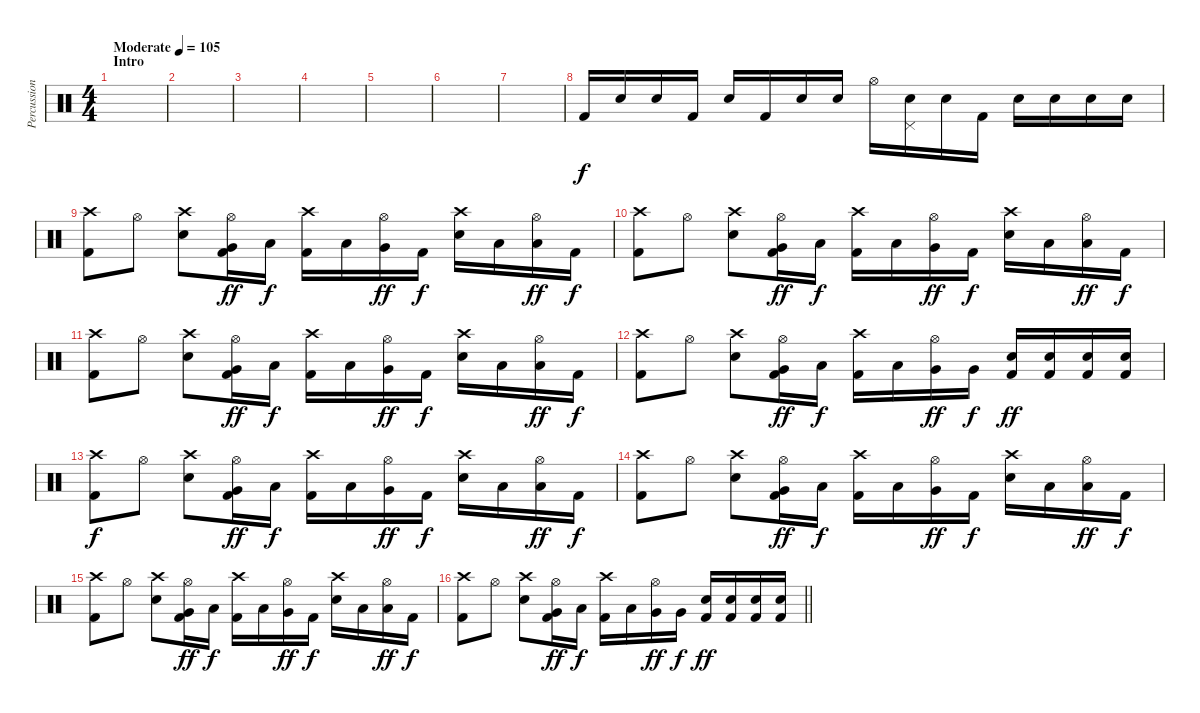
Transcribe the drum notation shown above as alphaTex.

\track ("Percussion" "Percussion") {instrument percussion}
\staff {score}
\articulation defaults
\ts (4 4)
\section ("" "Intro")
\tempo (105 "Moderate")
\clef neutral
\ks c
|
|
|
|
|
|
|
"Kick (hit) 2".16 "Electric Snare (hit)".16 "Electric Snare (hit)".16 "Kick (hit) 2".16 "Electric Snare (hit)".16 "Kick (hit) 2".16 "Electric Snare (hit)".16 "Electric Snare (hit)".16 "Hi-Hat (open)".16 ("Pedal Hi-Hat (hit)" "Electric Snare (hit)").16 "Electric Snare (hit)".16 "Kick (hit) 2".16 "Electric Snare (hit)".16 "Electric Snare (hit)".16 "Electric Snare (hit)".16 "Electric Snare (hit)".16 |
("Crash high (hit)" "Kick (hit) 2").8{dy f} "Hi-Hat (open)".8 ("Crash high (hit)" "Electric Snare (hit)").8 ("Very Low Tom (hit)" "Hi-Hat (open)" "Kick (hit) 2").16{dy ff} "Low Tom (hit)".16{dy f} ("Crash high (hit)" "Kick (hit) 2").16 "Low Tom (hit)".16 ("Very Low Tom (hit)" "Hi-Hat (open)").16{dy ff} "Kick (hit) 2".16{dy f} ("Crash high (hit)" "Electric Snare (hit)").16 "Low Tom (hit)".16 ("Low Tom (hit)" "Hi-Hat (open)").16{dy ff} "Kick (hit) 2".16{dy f} |
("Crash high (hit)" "Kick (hit) 2").8 "Hi-Hat (open)".8 ("Crash high (hit)" "Electric Snare (hit)").8 ("Very Low Tom (hit)" "Hi-Hat (open)" "Kick (hit) 2").16{dy ff} "Low Tom (hit)".16{dy f} ("Crash high (hit)" "Kick (hit) 2").16 "Low Tom (hit)".16 ("Very Low Tom (hit)" "Hi-Hat (open)").16{dy ff} "Kick (hit) 2".16{dy f} ("Crash high (hit)" "Electric Snare (hit)").16 "Low Tom (hit)".16 ("Low Tom (hit)" "Hi-Hat (open)").16{dy ff} "Kick (hit) 2".16{dy f} |
("Crash high (hit)" "Kick (hit) 2").8 "Hi-Hat (open)".8 ("Crash high (hit)" "Electric Snare (hit)").8 ("Very Low Tom (hit)" "Hi-Hat (open)" "Kick (hit) 2").16{dy ff} "Low Tom (hit)".16{dy f} ("Crash high (hit)" "Kick (hit) 2").16 "Low Tom (hit)".16 ("Very Low Tom (hit)" "Hi-Hat (open)").16{dy ff} "Kick (hit) 2".16{dy f} ("Crash high (hit)" "Electric Snare (hit)").16 "Low Tom (hit)".16 ("Low Tom (hit)" "Hi-Hat (open)").16{dy ff} "Kick (hit) 2".16{dy f} |
("Crash high (hit)" "Kick (hit) 2").8 "Hi-Hat (open)".8 ("Crash high (hit)" "Electric Snare (hit)").8 ("Very Low Tom (hit)" "Hi-Hat (open)" "Kick (hit) 2").16{dy ff} "Low Tom (hit)".16{dy f} ("Crash high (hit)" "Kick (hit) 2").16 "Low Tom (hit)".16 ("Very Low Tom (hit)" "Hi-Hat (open)").16{dy ff} "Very Low Tom (hit)".16{dy f} ("Electric Snare (hit)" "Kick (hit) 2").16{dy ff} ("Electric Snare (hit)" "Kick (hit) 2").16 ("Electric Snare (hit)" "Kick (hit) 2").16 ("Electric Snare (hit)" "Kick (hit) 2").16 |
("Crash high (hit)" "Kick (hit) 2").8{dy f} "Hi-Hat (open)".8 ("Crash high (hit)" "Electric Snare (hit)").8 ("Very Low Tom (hit)" "Hi-Hat (open)" "Kick (hit) 2").16{dy ff} "Low Tom (hit)".16{dy f} ("Crash high (hit)" "Kick (hit) 2").16 "Low Tom (hit)".16 ("Very Low Tom (hit)" "Hi-Hat (open)").16{dy ff} "Kick (hit) 2".16{dy f} ("Crash high (hit)" "Electric Snare (hit)").16 "Low Tom (hit)".16 ("Low Tom (hit)" "Hi-Hat (open)").16{dy ff} "Kick (hit) 2".16{dy f} |
("Crash high (hit)" "Kick (hit) 2").8 "Hi-Hat (open)".8 ("Crash high (hit)" "Electric Snare (hit)").8 ("Very Low Tom (hit)" "Hi-Hat (open)" "Kick (hit) 2").16{dy ff} "Low Tom (hit)".16{dy f} ("Crash high (hit)" "Kick (hit) 2").16 "Low Tom (hit)".16 ("Very Low Tom (hit)" "Hi-Hat (open)").16{dy ff} "Kick (hit) 2".16{dy f} ("Crash high (hit)" "Electric Snare (hit)").16 "Low Tom (hit)".16 ("Low Tom (hit)" "Hi-Hat (open)").16{dy ff} "Kick (hit) 2".16{dy f} |
("Crash high (hit)" "Kick (hit) 2").8 "Hi-Hat (open)".8 ("Crash high (hit)" "Electric Snare (hit)").8 ("Very Low Tom (hit)" "Hi-Hat (open)" "Kick (hit) 2").16{dy ff} "Low Tom (hit)".16{dy f} ("Crash high (hit)" "Kick (hit) 2").16 "Low Tom (hit)".16 ("Very Low Tom (hit)" "Hi-Hat (open)").16{dy ff} "Kick (hit) 2".16{dy f} ("Crash high (hit)" "Electric Snare (hit)").16 "Low Tom (hit)".16 ("Low Tom (hit)" "Hi-Hat (open)").16{dy ff} "Kick (hit) 2".16{dy f} |
\barLineRight lightlight
("Crash high (hit)" "Kick (hit) 2").8 "Hi-Hat (open)".8 ("Crash high (hit)" "Electric Snare (hit)").8 ("Very Low Tom (hit)" "Hi-Hat (open)" "Kick (hit) 2").16{dy ff} "Low Tom (hit)".16{dy f} ("Crash high (hit)" "Kick (hit) 2").16 "Low Tom (hit)".16 ("Very Low Tom (hit)" "Hi-Hat (open)").16{dy ff} "Very Low Tom (hit)".16{dy f} ("Electric Snare (hit)" "Kick (hit) 2").16{dy ff} ("Electric Snare (hit)" "Kick (hit) 2").16 ("Electric Snare (hit)" "Kick (hit) 2").16 ("Electric Snare (hit)" "Kick (hit) 2").16
